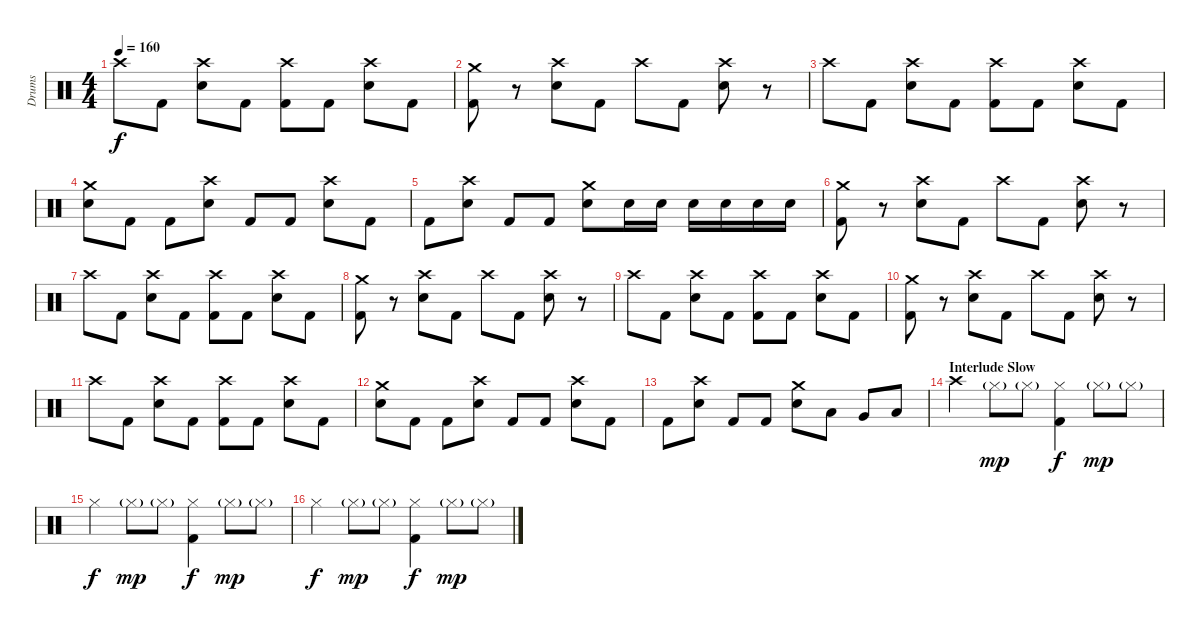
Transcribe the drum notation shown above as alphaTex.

\track ("Drums" "Drums") {instrument percussion}
\staff {score}
\articulation defaults
\ts (4 4)
\tempo 160
\clef neutral
\ks c "Crash high (hit)".8{dy f} "Kick (hit) 2".8
("Crash high (hit)" "Electric Snare (hit)").8 "Kick (hit) 2".8 ("Crash high (hit)" "Kick (hit) 2").8 "Kick (hit) 2".8 ("Crash high (hit)" "Electric Snare (hit)").8 "Kick (hit) 2".8 |
("Crash medium (hit)" "Kick (hit) 2").8 r.8 ("Crash high (hit)" "Electric Snare (hit)").8 "Kick (hit) 2".8 "Crash high (hit)".8 "Kick (hit) 2".8 ("Crash high (hit)" "Electric Snare (hit)").8 r.8 |
"Crash high (hit)".8 "Kick (hit) 2".8 ("Crash high (hit)" "Electric Snare (hit)").8 "Kick (hit) 2".8 ("Crash high (hit)" "Kick (hit) 2").8 "Kick (hit) 2".8 ("Crash high (hit)" "Electric Snare (hit)").8 "Kick (hit) 2".8 |
("Crash medium (hit)" "Electric Snare (hit)").8 "Kick (hit) 2".8 "Kick (hit) 2".8 ("Crash high (hit)" "Electric Snare (hit)").8 "Kick (hit) 2".8 "Kick (hit) 2".8 ("Crash high (hit)" "Electric Snare (hit)").8 "Kick (hit) 2".8 |
"Kick (hit) 2".8 ("Crash high (hit)" "Electric Snare (hit)").8 "Kick (hit) 2".8 "Kick (hit) 2".8 ("Crash medium (hit)" "Electric Snare (hit)").8 "Electric Snare (hit)".16 "Electric Snare (hit)".16 "Electric Snare (hit)".16 "Electric Snare (hit)".16 "Electric Snare (hit)".16 "Electric Snare (hit)".16 |
("Crash medium (hit)" "Kick (hit) 2").8 r.8 ("Crash high (hit)" "Electric Snare (hit)").8 "Kick (hit) 2".8 "Crash high (hit)".8 "Kick (hit) 2".8 ("Crash high (hit)" "Electric Snare (hit)").8 r.8 |
"Crash high (hit)".8 "Kick (hit) 2".8 ("Crash high (hit)" "Electric Snare (hit)").8 "Kick (hit) 2".8 ("Crash high (hit)" "Kick (hit) 2").8 "Kick (hit) 2".8 ("Crash high (hit)" "Electric Snare (hit)").8 "Kick (hit) 2".8 |
("Crash medium (hit)" "Kick (hit) 2").8 r.8 ("Crash high (hit)" "Electric Snare (hit)").8 "Kick (hit) 2".8 "Crash high (hit)".8 "Kick (hit) 2".8 ("Crash high (hit)" "Electric Snare (hit)").8 r.8 |
"Crash high (hit)".8 "Kick (hit) 2".8 ("Crash high (hit)" "Electric Snare (hit)").8 "Kick (hit) 2".8 ("Crash high (hit)" "Kick (hit) 2").8 "Kick (hit) 2".8 ("Crash high (hit)" "Electric Snare (hit)").8 "Kick (hit) 2".8 |
("Crash medium (hit)" "Kick (hit) 2").8 r.8 ("Crash high (hit)" "Electric Snare (hit)").8 "Kick (hit) 2".8 "Crash high (hit)".8 "Kick (hit) 2".8 ("Crash high (hit)" "Electric Snare (hit)").8 r.8 |
"Crash high (hit)".8 "Kick (hit) 2".8 ("Crash high (hit)" "Electric Snare (hit)").8 "Kick (hit) 2".8 ("Crash high (hit)" "Kick (hit) 2").8 "Kick (hit) 2".8 ("Crash high (hit)" "Electric Snare (hit)").8 "Kick (hit) 2".8 |
("Crash medium (hit)" "Electric Snare (hit)").8 "Kick (hit) 2".8 "Kick (hit) 2".8 ("Crash high (hit)" "Electric Snare (hit)").8 "Kick (hit) 2".8 "Kick (hit) 2".8 ("Crash high (hit)" "Electric Snare (hit)").8 "Kick (hit) 2".8 |
"Kick (hit) 2".8 ("Crash high (hit)" "Electric Snare (hit)").8 "Kick (hit) 2".8 "Kick (hit) 2".8 ("Crash medium (hit)" "Electric Snare (hit)").8 "Low Tom (hit)".8 "Very Low Tom (hit)".8 "Low Floor Tom (hit)".8 |
\section ("" "Interlude Slow")
"Crash high (hit)".4 "Hi-Hat (closed)"{g}.8{dy mp} "Hi-Hat (closed)"{g}.8 ("Hi-Hat (closed)" "Kick (hit) 2").4{dy f} "Hi-Hat (closed)"{g}.8{dy mp} "Hi-Hat (closed)"{g}.8 |
"Hi-Hat (closed)".4{dy f} "Hi-Hat (closed)"{g}.8{dy mp} "Hi-Hat (closed)"{g}.8 ("Hi-Hat (closed)" "Kick (hit) 2").4{dy f} "Hi-Hat (closed)"{g}.8{dy mp} "Hi-Hat (closed)"{g}.8 |
"Hi-Hat (closed)".4{dy f} "Hi-Hat (closed)"{g}.8{dy mp} "Hi-Hat (closed)"{g}.8 ("Hi-Hat (closed)" "Kick (hit) 2").4{dy f} "Hi-Hat (closed)"{g}.8{dy mp} "Hi-Hat (closed)"{g}.8
